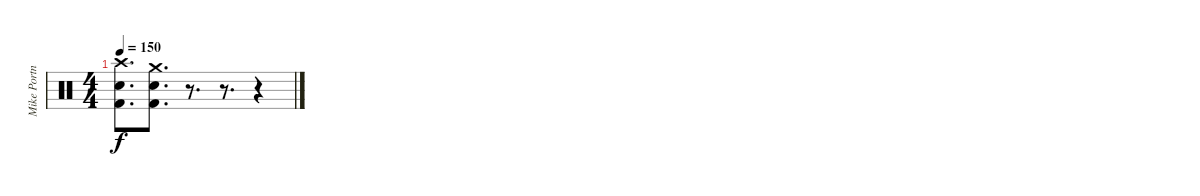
\track ("Mike Portnoy" "Mike Portn") {instrument percussion}
\staff {score}
\articulation defaults
\ts (4 4)
\tempo 150
\clef neutral
\ks c
("Crash high (hit)" "Snare (hit) 2" "Kick (hit) 2").8{d dy f} ("Crash medium (hit)" "Snare (hit) 2" "Kick (hit) 2").8{d} r.8{d} r.8{d} r.4
